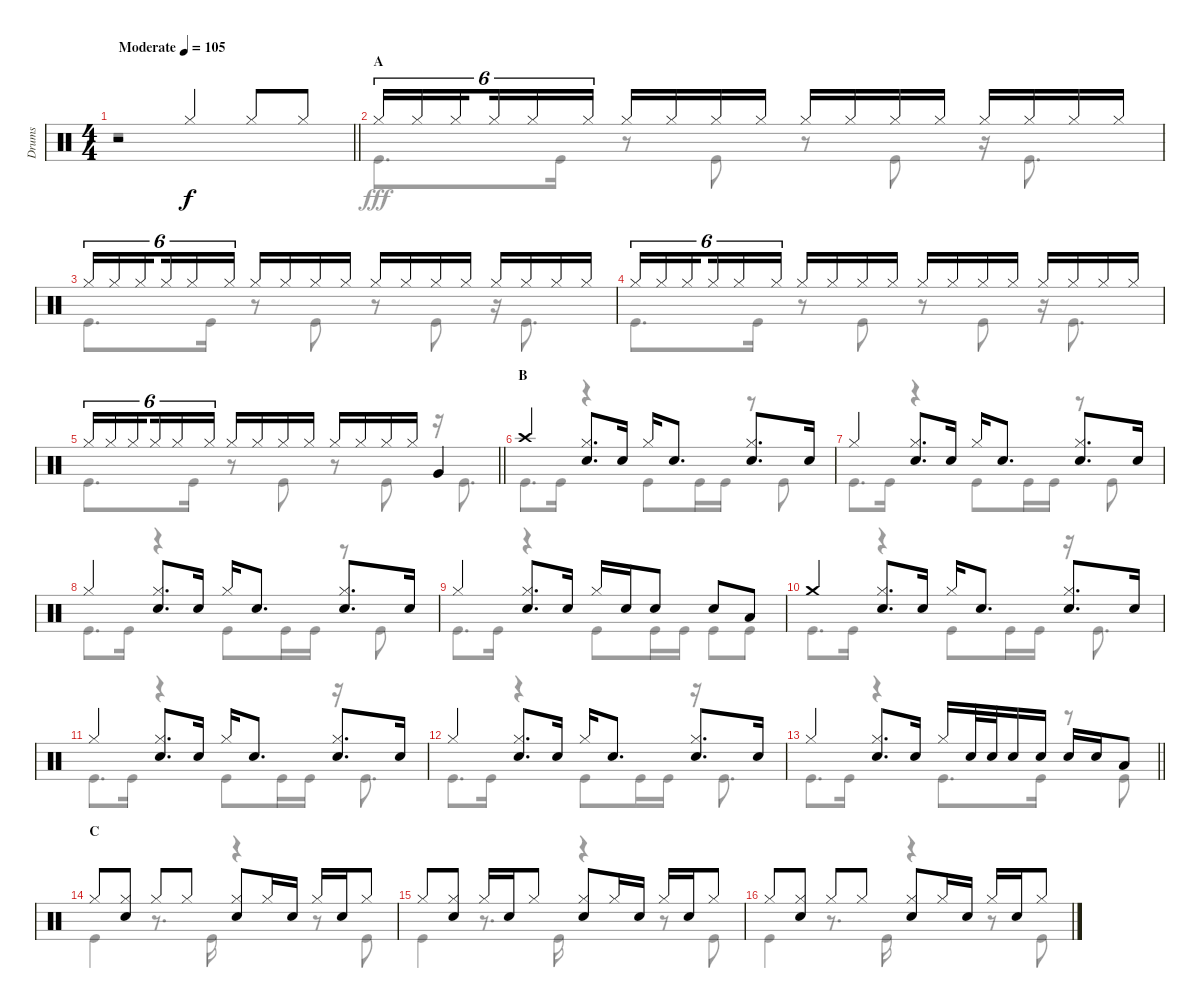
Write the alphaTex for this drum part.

\track ("Drums" "Drums") {instrument percussion}
\staff {score}
\articulation defaults
\voice
\ts (4 4)
\tempo (105 "Moderate")
\clef neutral
\barLineRight lightlight
\ks c
r.2{dy f} "Hi-Hat (closed)".4 "Hi-Hat (closed)".8 "Hi-Hat (closed)".8 |
\section ("" "A")
"Hi-Hat (closed)".16{tu (6 4)} "Hi-Hat (closed)".16{tu (6 4)} "Hi-Hat (closed)".16{tu (6 4) beam splitsecondary} "Hi-Hat (closed)".16{tu (6 4)} "Hi-Hat (closed)".16{tu (6 4)} "Hi-Hat (closed)".16{tu (6 4)} "Hi-Hat (closed)".16 "Hi-Hat (closed)".16 "Hi-Hat (closed)".16 "Hi-Hat (closed)".16 "Hi-Hat (closed)".16 "Hi-Hat (closed)".16 "Hi-Hat (closed)".16 "Hi-Hat (closed)".16 "Hi-Hat (closed)".16 "Hi-Hat (closed)".16 "Hi-Hat (closed)".16 "Hi-Hat (closed)".16 |
"Hi-Hat (closed)".16{tu (6 4)} "Hi-Hat (closed)".16{tu (6 4)} "Hi-Hat (closed)".16{tu (6 4) beam splitsecondary} "Hi-Hat (closed)".16{tu (6 4)} "Hi-Hat (closed)".16{tu (6 4)} "Hi-Hat (closed)".16{tu (6 4)} "Hi-Hat (closed)".16 "Hi-Hat (closed)".16 "Hi-Hat (closed)".16 "Hi-Hat (closed)".16 "Hi-Hat (closed)".16 "Hi-Hat (closed)".16 "Hi-Hat (closed)".16 "Hi-Hat (closed)".16 "Hi-Hat (closed)".16 "Hi-Hat (closed)".16 "Hi-Hat (closed)".16 "Hi-Hat (closed)".16 |
"Hi-Hat (closed)".16{tu (6 4)} "Hi-Hat (closed)".16{tu (6 4)} "Hi-Hat (closed)".16{tu (6 4) beam splitsecondary} "Hi-Hat (closed)".16{tu (6 4)} "Hi-Hat (closed)".16{tu (6 4)} "Hi-Hat (closed)".16{tu (6 4)} "Hi-Hat (closed)".16 "Hi-Hat (closed)".16 "Hi-Hat (closed)".16 "Hi-Hat (closed)".16 "Hi-Hat (closed)".16 "Hi-Hat (closed)".16 "Hi-Hat (closed)".16 "Hi-Hat (closed)".16 "Hi-Hat (closed)".16 "Hi-Hat (closed)".16 "Hi-Hat (closed)".16 "Hi-Hat (closed)".16 |
\barLineRight lightlight "Hi-Hat (closed)".16{tu (6 4)} "Hi-Hat (closed)".16{tu (6 4)} "Hi-Hat (closed)".16{tu (6 4) beam splitsecondary} "Hi-Hat (closed)".16{tu (6 4)} "Hi-Hat (closed)".16{tu (6 4)} "Hi-Hat (closed)".16{tu (6 4)} "Hi-Hat (closed)".16 "Hi-Hat (closed)".16 "Hi-Hat (closed)".16 "Hi-Hat (closed)".16 "Hi-Hat (closed)".16 "Hi-Hat (closed)".16 "Hi-Hat (closed)".16 "Hi-Hat (closed)".16 "Very Low Tom (hit)".4
|
\section ("" "B")
"Crash high (hit)".4 ("Hi-Hat (closed)" "Snare (hit) 2").8{d} "Snare (hit) 2".16 "Hi-Hat (closed)".16 "Snare (hit) 2".8{d} ("Hi-Hat (closed)" "Snare (hit) 2").8{d} "Snare (hit) 2".16 |
"Hi-Hat (closed)".4 ("Hi-Hat (closed)" "Snare (hit) 2").8{d} "Snare (hit) 2".16 "Hi-Hat (closed)".16 "Snare (hit) 2".8{d} ("Hi-Hat (closed)" "Snare (hit) 2").8{d} "Snare (hit) 2".16 |
"Hi-Hat (closed)".4 ("Hi-Hat (closed)" "Snare (hit) 2").8{d} "Snare (hit) 2".16 "Hi-Hat (closed)".16 "Snare (hit) 2".8{d} ("Hi-Hat (closed)" "Snare (hit) 2").8{d} "Snare (hit) 2".16 |
"Hi-Hat (closed)".4 ("Hi-Hat (closed)" "Snare (hit) 2").8{d} "Snare (hit) 2".16 "Hi-Hat (closed)".16 "Snare (hit) 2".16 "Snare (hit) 2".8 "Snare (hit) 2".8 "Low Tom (hit)".8 |
"Crash medium (hit)".4 ("Hi-Hat (closed)" "Snare (hit) 2").8{d} "Snare (hit) 2".16 "Hi-Hat (closed)".16 "Snare (hit) 2".8{d} ("Hi-Hat (closed)" "Snare (hit) 2").8{d} "Snare (hit) 2".16 |
"Hi-Hat (closed)".4 ("Hi-Hat (closed)" "Snare (hit) 2").8{d} "Snare (hit) 2".16 "Hi-Hat (closed)".16 "Snare (hit) 2".8{d} ("Hi-Hat (closed)" "Snare (hit) 2").8{d} "Snare (hit) 2".16 |
"Hi-Hat (closed)".4 ("Hi-Hat (closed)" "Snare (hit) 2").8{d} "Snare (hit) 2".16 "Hi-Hat (closed)".16 "Snare (hit) 2".8{d} ("Hi-Hat (closed)" "Snare (hit) 2").8{d} "Snare (hit) 2".16 |
\barLineRight lightlight "Hi-Hat (closed)".4
("Hi-Hat (closed)" "Snare (hit) 2").8{d} "Snare (hit) 2".16 "Hi-Hat (closed)".16 "Snare (hit) 2".32 "Snare (hit) 2".32 "Snare (hit) 2".16 "Snare (hit) 2".16 "Snare (hit) 2".16 "Snare (hit) 2".16 "Low Tom (hit)".8 |
\section ("" "C")
"Hi-Hat (closed)".8 ("Hi-Hat (closed)" "Snare (hit) 2").8 "Hi-Hat (closed)".8 "Hi-Hat (closed)".8 ("Hi-Hat (closed)" "Snare (hit) 2").8 "Hi-Hat (closed)".16 "Snare (hit) 2".16 "Hi-Hat (closed)".16 "Snare (hit) 2".16 "Hi-Hat (closed)".8 |
"Hi-Hat (closed)".8 ("Hi-Hat (closed)" "Snare (hit) 2").8 "Hi-Hat (closed)".16 "Snare (hit) 2".16 "Hi-Hat (closed)".8 ("Hi-Hat (closed)" "Snare (hit) 2").8 "Hi-Hat (closed)".16 "Snare (hit) 2".16 "Hi-Hat (closed)".16 "Snare (hit) 2".16 "Hi-Hat (closed)".8 |
"Hi-Hat (closed)".8 ("Hi-Hat (closed)" "Snare (hit) 2").8 "Hi-Hat (closed)".8 "Hi-Hat (closed)".8 ("Hi-Hat (closed)" "Snare (hit) 2").8 "Hi-Hat (closed)".16 "Snare (hit) 2".16 "Hi-Hat (closed)".16 "Snare (hit) 2".16 "Hi-Hat (closed)".8
\voice
\clef neutral
\ottava regular
\simile none
\barLineRight lightlight
\ks c
r.1{dy fff} |
"Kick (hit)".8{d} "Kick (hit)".16 r.8 "Kick (hit)".8 r.8 "Kick (hit)".8 r.16 "Kick (hit)".8{d} |
"Kick (hit)".8{d} "Kick (hit)".16 r.8 "Kick (hit)".8 r.8 "Kick (hit)".8 r.16 "Kick (hit)".8{d} |
"Kick (hit)".8{d} "Kick (hit)".16 r.8 "Kick (hit)".8 r.8 "Kick (hit)".8 r.16 "Kick (hit)".8{d} |
\barLineRight lightlight "Kick (hit)".8{d} "Kick (hit)".16
r.8 "Kick (hit)".8 r.8 "Kick (hit)".8 r.16 "Kick (hit)".8{d} |
"Kick (hit)".8{d} "Kick (hit)".16 r.4 "Kick (hit)".8 "Kick (hit)".16 "Kick (hit)".16 r.8 "Kick (hit)".8 |
"Kick (hit)".8{d} "Kick (hit)".16 r.4 "Kick (hit)".8 "Kick (hit)".16 "Kick (hit)".16 r.8 "Kick (hit)".8 |
"Kick (hit)".8{d} "Kick (hit)".16 r.4 "Kick (hit)".8 "Kick (hit)".16 "Kick (hit)".16 r.8 "Kick (hit)".8 |
"Kick (hit)".8{d} "Kick (hit)".16 r.4 "Kick (hit)".8 "Kick (hit)".16 "Kick (hit)".16 "Kick (hit)".8 "Kick (hit)".8 |
"Kick (hit)".8{d} "Kick (hit)".16 r.4 "Kick (hit)".8 "Kick (hit)".16 "Kick (hit)".16 r.16 "Kick (hit)".8{d} |
"Kick (hit)".8{d} "Kick (hit)".16 r.4 "Kick (hit)".8 "Kick (hit)".16 "Kick (hit)".16 r.16 "Kick (hit)".8{d} |
"Kick (hit)".8{d} "Kick (hit)".16 r.4 "Kick (hit)".8 "Kick (hit)".16 "Kick (hit)".16 r.16 "Kick (hit)".8{d} |
\barLineRight lightlight "Kick (hit)".8{d} "Kick (hit)".16
r.4 "Kick (hit)".8{d} "Kick (hit)".16 r.8 "Kick (hit)".8 |
"Kick (hit)".4 r.8{d} "Kick (hit)".16 r.4 r.8 "Kick (hit)".8 |
"Kick (hit)".4 r.8{d} "Kick (hit)".16 r.4 r.8 "Kick (hit)".8 |
"Kick (hit)".4 r.8{d} "Kick (hit)".16 r.4 r.8 "Kick (hit)".8
